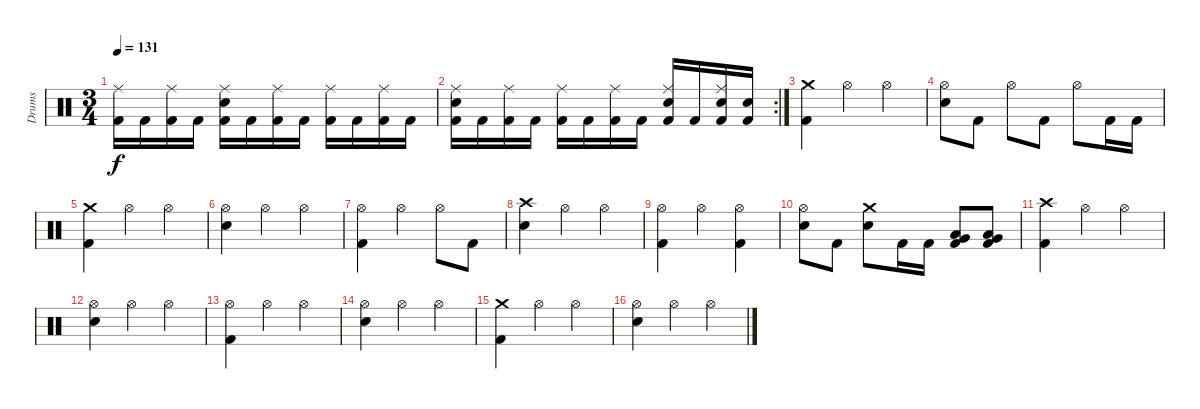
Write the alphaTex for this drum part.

\track ("Drums" "Drums") {instrument percussion}
\staff {score}
\articulation defaults
\ts (3 4)
\tempo 131
\clef neutral
\ks c
("Kick (hit) 2" "Ride (middle)").16{dy f} "Kick (hit) 2".16 ("Kick (hit) 2" "Ride (middle)").16 "Kick (hit) 2".16 ("Kick (hit) 2" "Electric Snare (hit)" "Ride (middle)").16 "Kick (hit) 2".16 ("Kick (hit) 2" "Ride (middle)").16 "Kick (hit) 2".16 ("Kick (hit) 2" "Ride (middle)").16 "Kick (hit) 2".16 ("Kick (hit) 2" "Ride (middle)").16 "Kick (hit) 2".16 |
\rc 2
("Kick (hit) 2" "Electric Snare (hit)" "Ride (middle)").16 "Kick (hit) 2".16 ("Kick (hit) 2" "Ride (middle)").16 "Kick (hit) 2".16 ("Kick (hit) 2" "Ride (middle)").16 "Kick (hit) 2".16 ("Kick (hit) 2" "Ride (middle)").16 "Kick (hit) 2".16 ("Kick (hit) 2" "Electric Snare (hit)" "Ride (middle)").16 "Kick (hit) 2".16 ("Kick (hit) 2" "Electric Snare (hit)" "Ride (middle)").16 ("Kick (hit) 2" "Electric Snare (hit)").16 |
("Kick (hit) 2" "Crash medium (hit)").4 "Hi-Hat (open)".4 "Hi-Hat (open)".4 |
("Electric Snare (hit)" "Hi-Hat (open)").8 "Kick (hit) 2".8 "Hi-Hat (open)".8 "Kick (hit) 2".8 "Hi-Hat (open)".8 "Kick (hit) 2".16 "Kick (hit) 2".16 |
("Kick (hit) 2" "Crash medium (hit)").4 "Hi-Hat (open)".4 "Hi-Hat (open)".4 |
("Electric Snare (hit)" "Hi-Hat (open)").4 "Hi-Hat (open)".4 "Hi-Hat (open)".4 |
("Kick (hit) 2" "Hi-Hat (open)").4 "Hi-Hat (open)".4 "Hi-Hat (open)".8 "Kick (hit) 2".8 |
("Electric Snare (hit)" "Crash high (hit)").4 "Hi-Hat (open)".4 "Hi-Hat (open)".4 |
("Kick (hit) 2" "Hi-Hat (open)").4 "Hi-Hat (open)".4 ("Kick (hit) 2" "Hi-Hat (open)").4 |
("Electric Snare (hit)" "Hi-Hat (open)").8 "Kick (hit) 2".8 ("Electric Snare (hit)" "Crash medium (hit)").8 "Kick (hit) 2".16 "Kick (hit) 2".16 ("Kick (hit) 2" "Low Tom (hit)" "Very Low Tom (hit)").8 ("Kick (hit) 2" "Low Tom (hit)" "Very Low Tom (hit)").8 |
("Kick (hit) 2" "Crash high (hit)").4 "Hi-Hat (open)".4 "Hi-Hat (open)".4 |
("Electric Snare (hit)" "Hi-Hat (open)").4 "Hi-Hat (open)".4 "Hi-Hat (open)".4 |
("Kick (hit) 2" "Hi-Hat (open)").4 "Hi-Hat (open)".4 "Hi-Hat (open)".4 |
("Electric Snare (hit)" "Hi-Hat (open)").4 "Hi-Hat (open)".4 "Hi-Hat (open)".4 |
("Kick (hit) 2" "Crash medium (hit)").4 "Hi-Hat (open)".4 "Hi-Hat (open)".4 |
("Electric Snare (hit)" "Hi-Hat (open)").4 "Hi-Hat (open)".4 "Hi-Hat (open)".4
